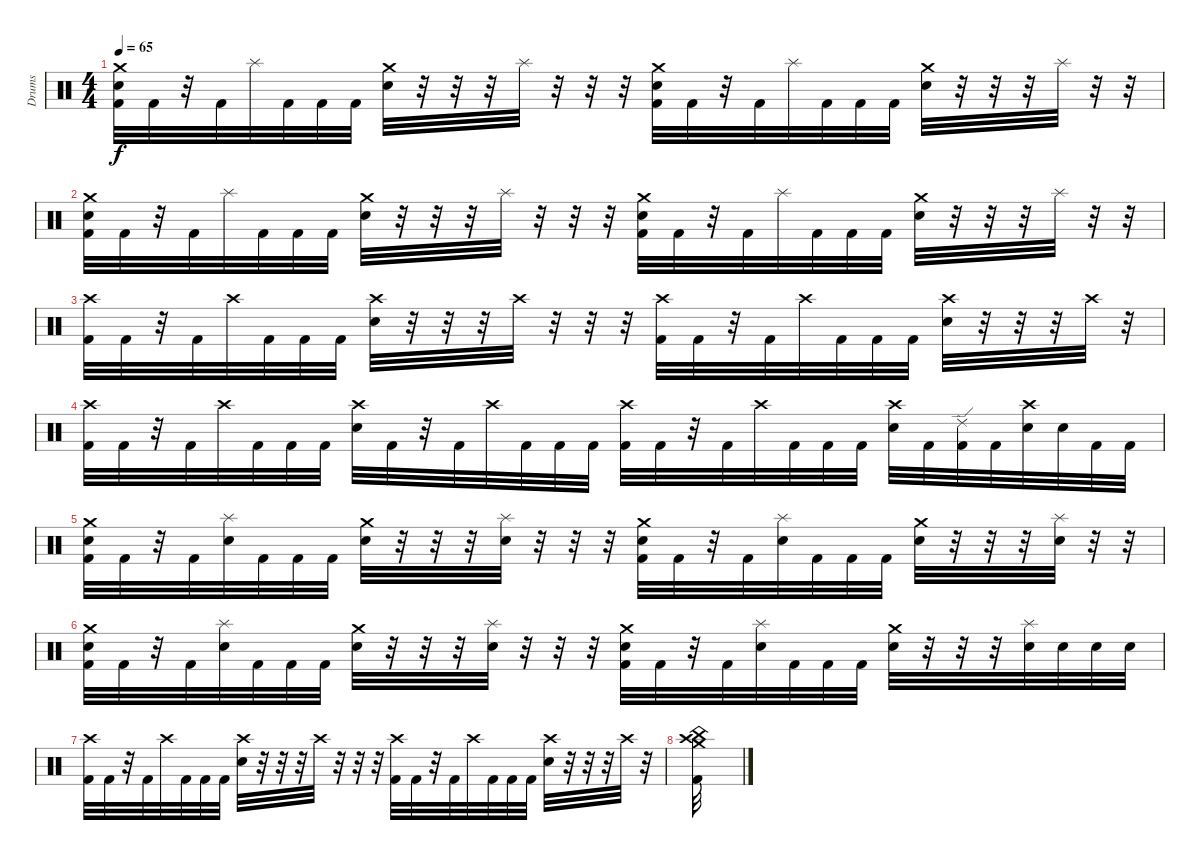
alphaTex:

\track ("Drums" "Drums") {instrument percussion}
\staff {score}
\articulation defaults
\ts (4 4)
\tempo 65
\clef neutral
\ks c
("Crash medium (hit)" "Kick (hit) 2" "Electric Snare (hit)").32{dy f} "Kick (hit) 2".32 r.32 "Kick (hit) 2".32 "Splash (hit)".32 "Kick (hit) 2".32 "Kick (hit) 2".32 "Kick (hit) 2".32 ("Crash medium (hit)" "Electric Snare (hit)").32 r.32 r.32 r.32 "Splash (hit)".32 r.32 r.32 r.32 ("Crash medium (hit)" "Kick (hit) 2" "Electric Snare (hit)").32 "Kick (hit) 2".32 r.32 "Kick (hit) 2".32 "Splash (hit)".32 "Kick (hit) 2".32 "Kick (hit) 2".32 "Kick (hit) 2".32 ("Crash medium (hit)" "Electric Snare (hit)").32 r.32 r.32 r.32 "Splash (hit)".32 r.32 r.32 |
("Crash medium (hit)" "Kick (hit) 2" "Electric Snare (hit)").32 "Kick (hit) 2".32 r.32 "Kick (hit) 2".32 "Splash (hit)".32 "Kick (hit) 2".32 "Kick (hit) 2".32 "Kick (hit) 2".32 ("Crash medium (hit)" "Electric Snare (hit)").32 r.32 r.32 r.32 "Splash (hit)".32 r.32 r.32 r.32 ("Crash medium (hit)" "Kick (hit) 2" "Electric Snare (hit)").32 "Kick (hit) 2".32 r.32 "Kick (hit) 2".32 "Splash (hit)".32 "Kick (hit) 2".32 "Kick (hit) 2".32 "Kick (hit) 2".32 ("Crash medium (hit)" "Electric Snare (hit)").32 r.32 r.32 r.32 "Splash (hit)".32 r.32 r.32 |
("Crash high (hit)" "Kick (hit) 2").32 "Kick (hit) 2".32 r.32 "Kick (hit) 2".32 "Crash high (hit)".32 "Kick (hit) 2".32 "Kick (hit) 2".32 "Kick (hit) 2".32 ("Crash high (hit)" "Electric Snare (hit)").32 r.32 r.32 r.32 "Crash high (hit)".32 r.32 r.32 r.32 ("Crash high (hit)" "Kick (hit) 2").32 "Kick (hit) 2".32 r.32 "Kick (hit) 2".32 "Crash high (hit)".32 "Kick (hit) 2".32 "Kick (hit) 2".32 "Kick (hit) 2".32 ("Crash high (hit)" "Electric Snare (hit)").32 r.32 r.32 r.32 "Crash high (hit)".32 r.32 |
("Crash high (hit)" "Kick (hit) 2").32 "Kick (hit) 2".32 r.32 "Kick (hit) 2".32 "Crash high (hit)".32 "Kick (hit) 2".32 "Kick (hit) 2".32 "Kick (hit) 2".32 ("Crash high (hit)" "Electric Snare (hit)").32 "Kick (hit) 2".32 r.32 "Kick (hit) 2".32 "Crash high (hit)".32 "Kick (hit) 2".32 "Kick (hit) 2".32 "Kick (hit) 2".32 ("Crash high (hit)" "Kick (hit) 2").32 "Kick (hit) 2".32 r.32 "Kick (hit) 2".32 "Crash high (hit)".32 "Kick (hit) 2".32 "Kick (hit) 2".32 "Kick (hit) 2".32 ("Crash high (hit)" "Electric Snare (hit)").32 "Kick (hit) 2".32 ("Ride (edge) 2" "Kick (hit) 2").32 "Kick (hit) 2".32 ("Crash high (hit)" "Electric Snare (hit)").32 "Electric Snare (hit)".32 "Kick (hit) 2".32 "Kick (hit) 2".32 |
("Crash medium (hit)" "Kick (hit) 2" "Electric Snare (hit)").32 "Kick (hit) 2".32 r.32 "Kick (hit) 2".32 ("Splash (hit)" "Electric Snare (hit)").32 "Kick (hit) 2".32 "Kick (hit) 2".32 "Kick (hit) 2".32 ("Crash medium (hit)" "Electric Snare (hit)").32 r.32 r.32 r.32 ("Splash (hit)" "Electric Snare (hit)").32 r.32 r.32 r.32 ("Crash medium (hit)" "Kick (hit) 2" "Electric Snare (hit)").32 "Kick (hit) 2".32 r.32 "Kick (hit) 2".32 ("Splash (hit)" "Electric Snare (hit)").32 "Kick (hit) 2".32 "Kick (hit) 2".32 "Kick (hit) 2".32 ("Crash medium (hit)" "Electric Snare (hit)").32 r.32 r.32 r.32 ("Splash (hit)" "Electric Snare (hit)").32 r.32 r.32 |
("Crash medium (hit)" "Kick (hit) 2" "Electric Snare (hit)").32 "Kick (hit) 2".32 r.32 "Kick (hit) 2".32 ("Splash (hit)" "Electric Snare (hit)").32 "Kick (hit) 2".32 "Kick (hit) 2".32 "Kick (hit) 2".32 ("Crash medium (hit)" "Electric Snare (hit)").32 r.32 r.32 r.32 ("Splash (hit)" "Electric Snare (hit)").32 r.32 r.32 r.32 ("Crash medium (hit)" "Kick (hit) 2" "Electric Snare (hit)").32 "Kick (hit) 2".32 r.32 "Kick (hit) 2".32 ("Splash (hit)" "Electric Snare (hit)").32 "Kick (hit) 2".32 "Kick (hit) 2".32 "Kick (hit) 2".32 ("Crash medium (hit)" "Electric Snare (hit)").32 r.32 r.32 r.32 ("Splash (hit)" "Electric Snare (hit)").32 "Electric Snare (hit)".32 "Electric Snare (hit)".32 "Electric Snare (hit)".32 |
("Crash high (hit)" "Kick (hit) 2").32 "Kick (hit) 2".32 r.32 "Kick (hit) 2".32 "Crash high (hit)".32 "Kick (hit) 2".32 "Kick (hit) 2".32 "Kick (hit) 2".32 ("Crash high (hit)" "Electric Snare (hit)").32 r.32 r.32 r.32 "Crash high (hit)".32 r.32 r.32 r.32 ("Crash high (hit)" "Kick (hit) 2").32 "Kick (hit) 2".32 r.32 "Kick (hit) 2".32 "Crash high (hit)".32 "Kick (hit) 2".32 "Kick (hit) 2".32 "Kick (hit) 2".32 ("Crash high (hit)" "Electric Snare (hit)").32 r.32 r.32 r.32 "Crash high (hit)".32 r.32 |
("Crash high (hit)" "China (hit)" "Crash medium (hit)" "Kick (hit) 2").32
